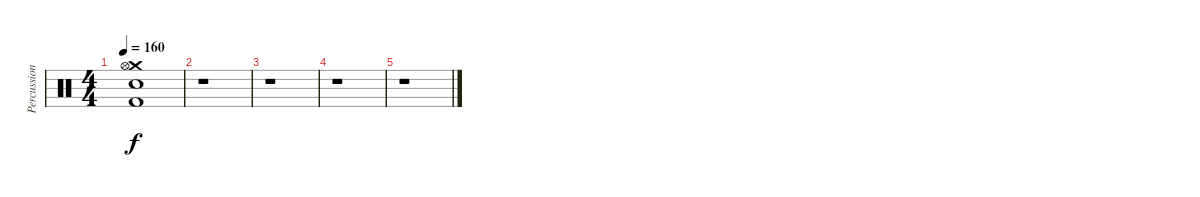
\track ("Percussions" "Percussion") {instrument percussion}
\staff {score}
\articulation defaults
\ts (4 4)
\tempo 160
\clef neutral
\ks c
("Crash medium (hit)" "Hi-Hat (open)" "Snare (hit) 2" "Kick (hit) 2").1{dy f} |
r.1 |
r.1 |
r.1 |
r.1
